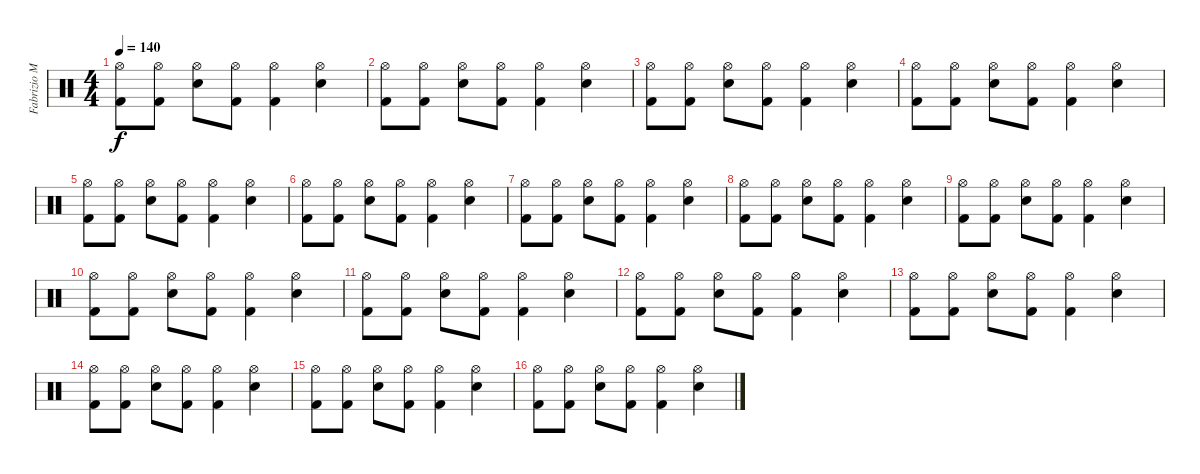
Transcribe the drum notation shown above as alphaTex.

\track ("Fabrizio Moretti" "Fabrizio M") {instrument percussion}
\staff {score}
\articulation defaults
\ts (4 4)
\tempo 140
\clef neutral
\ks c
("Kick (hit) 2" "Hi-Hat (open)").8{dy f} ("Kick (hit) 2" "Hi-Hat (open)").8 ("Electric Snare (hit)" "Hi-Hat (open)").8 ("Kick (hit) 2" "Hi-Hat (open)").8 ("Kick (hit) 2" "Hi-Hat (open)").4 ("Electric Snare (hit)" "Hi-Hat (open)").4 |
("Kick (hit) 2" "Hi-Hat (open)").8 ("Kick (hit) 2" "Hi-Hat (open)").8 ("Electric Snare (hit)" "Hi-Hat (open)").8 ("Kick (hit) 2" "Hi-Hat (open)").8 ("Kick (hit) 2" "Hi-Hat (open)").4 ("Electric Snare (hit)" "Hi-Hat (open)").4 |
("Kick (hit) 2" "Hi-Hat (open)").8 ("Kick (hit) 2" "Hi-Hat (open)").8 ("Electric Snare (hit)" "Hi-Hat (open)").8 ("Kick (hit) 2" "Hi-Hat (open)").8 ("Kick (hit) 2" "Hi-Hat (open)").4 ("Electric Snare (hit)" "Hi-Hat (open)").4 |
("Kick (hit) 2" "Hi-Hat (open)").8 ("Kick (hit) 2" "Hi-Hat (open)").8 ("Electric Snare (hit)" "Hi-Hat (open)").8 ("Kick (hit) 2" "Hi-Hat (open)").8 ("Kick (hit) 2" "Hi-Hat (open)").4 ("Electric Snare (hit)" "Hi-Hat (open)").4 |
("Kick (hit) 2" "Hi-Hat (open)").8 ("Kick (hit) 2" "Hi-Hat (open)").8 ("Electric Snare (hit)" "Hi-Hat (open)").8 ("Kick (hit) 2" "Hi-Hat (open)").8 ("Kick (hit) 2" "Hi-Hat (open)").4 ("Electric Snare (hit)" "Hi-Hat (open)").4 |
("Kick (hit) 2" "Hi-Hat (open)").8 ("Kick (hit) 2" "Hi-Hat (open)").8 ("Electric Snare (hit)" "Hi-Hat (open)").8 ("Kick (hit) 2" "Hi-Hat (open)").8 ("Kick (hit) 2" "Hi-Hat (open)").4 ("Electric Snare (hit)" "Hi-Hat (open)").4 |
("Kick (hit) 2" "Hi-Hat (open)").8 ("Kick (hit) 2" "Hi-Hat (open)").8 ("Electric Snare (hit)" "Hi-Hat (open)").8 ("Kick (hit) 2" "Hi-Hat (open)").8 ("Kick (hit) 2" "Hi-Hat (open)").4 ("Electric Snare (hit)" "Hi-Hat (open)").4 |
("Kick (hit) 2" "Hi-Hat (open)").8 ("Kick (hit) 2" "Hi-Hat (open)").8 ("Electric Snare (hit)" "Hi-Hat (open)").8 ("Kick (hit) 2" "Hi-Hat (open)").8 ("Kick (hit) 2" "Hi-Hat (open)").4 ("Electric Snare (hit)" "Hi-Hat (open)").4 |
("Kick (hit) 2" "Hi-Hat (open)").8 ("Kick (hit) 2" "Hi-Hat (open)").8 ("Electric Snare (hit)" "Hi-Hat (open)").8 ("Kick (hit) 2" "Hi-Hat (open)").8 ("Kick (hit) 2" "Hi-Hat (open)").4 ("Electric Snare (hit)" "Hi-Hat (open)").4 |
("Kick (hit) 2" "Hi-Hat (open)").8 ("Kick (hit) 2" "Hi-Hat (open)").8 ("Electric Snare (hit)" "Hi-Hat (open)").8 ("Kick (hit) 2" "Hi-Hat (open)").8 ("Kick (hit) 2" "Hi-Hat (open)").4 ("Electric Snare (hit)" "Hi-Hat (open)").4 |
("Kick (hit) 2" "Hi-Hat (open)").8 ("Kick (hit) 2" "Hi-Hat (open)").8 ("Electric Snare (hit)" "Hi-Hat (open)").8 ("Kick (hit) 2" "Hi-Hat (open)").8 ("Kick (hit) 2" "Hi-Hat (open)").4 ("Electric Snare (hit)" "Hi-Hat (open)").4 |
("Kick (hit) 2" "Hi-Hat (open)").8 ("Kick (hit) 2" "Hi-Hat (open)").8 ("Electric Snare (hit)" "Hi-Hat (open)").8 ("Kick (hit) 2" "Hi-Hat (open)").8 ("Kick (hit) 2" "Hi-Hat (open)").4 ("Electric Snare (hit)" "Hi-Hat (open)").4 |
("Kick (hit) 2" "Hi-Hat (open)").8 ("Kick (hit) 2" "Hi-Hat (open)").8 ("Electric Snare (hit)" "Hi-Hat (open)").8 ("Kick (hit) 2" "Hi-Hat (open)").8 ("Kick (hit) 2" "Hi-Hat (open)").4 ("Electric Snare (hit)" "Hi-Hat (open)").4 |
("Kick (hit) 2" "Hi-Hat (open)").8 ("Kick (hit) 2" "Hi-Hat (open)").8 ("Electric Snare (hit)" "Hi-Hat (open)").8 ("Kick (hit) 2" "Hi-Hat (open)").8 ("Kick (hit) 2" "Hi-Hat (open)").4 ("Electric Snare (hit)" "Hi-Hat (open)").4 |
("Kick (hit) 2" "Hi-Hat (open)").8 ("Kick (hit) 2" "Hi-Hat (open)").8 ("Electric Snare (hit)" "Hi-Hat (open)").8 ("Kick (hit) 2" "Hi-Hat (open)").8 ("Kick (hit) 2" "Hi-Hat (open)").4 ("Electric Snare (hit)" "Hi-Hat (open)").4 |
("Kick (hit) 2" "Hi-Hat (open)").8 ("Kick (hit) 2" "Hi-Hat (open)").8 ("Electric Snare (hit)" "Hi-Hat (open)").8 ("Kick (hit) 2" "Hi-Hat (open)").8 ("Kick (hit) 2" "Hi-Hat (open)").4 ("Electric Snare (hit)" "Hi-Hat (open)").4
